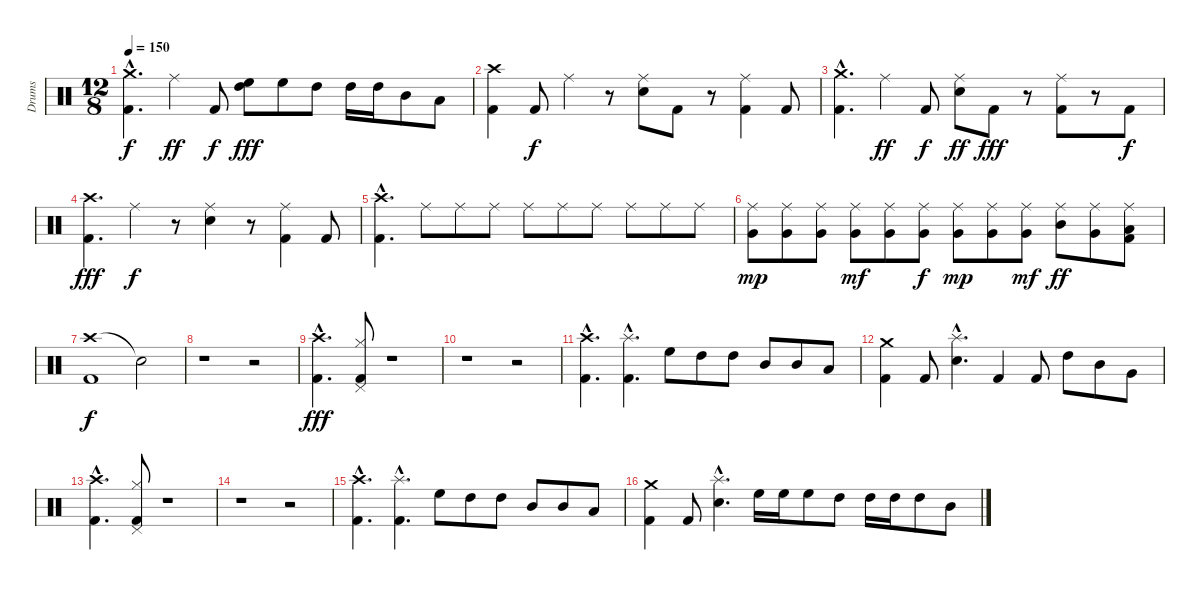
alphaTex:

\track ("Drums" "Drums") {instrument percussion}
\staff {score}
\articulation defaults
\ts (12 8)
\tempo 150
\clef neutral
\ks c
("Crash medium (hit)" "Kick (hit) 2"{hac}).4{d dy f} "Ride (middle)".4{dy ff} "Kick (hit) 2".8{dy f} ("High Tom (hit)" "High Floor Tom (hit)").8{dy fff} "High Floor Tom (hit)".8 "High Tom (hit)".8 "High Tom (hit)".16 "High Tom (hit)".16 "Mid Tom (hit)".8 "Low Floor Tom (hit)".8 |
("Crash high (hit)" "Kick (hit) 2").4 "Kick (hit) 2".8{dy f} "Ride (middle)".4 r.8 ("Ride (middle)" "Snare (hit) 2").8 "Kick (hit) 2".8 r.8 ("Ride (middle)" "Kick (hit) 2").4 "Kick (hit) 2".8 |
("Crash medium (hit)" "Kick (hit) 2"{hac}).4{d} "Ride (middle)".4{dy ff} "Kick (hit) 2".8{dy f} ("Ride (middle)" "Snare (hit) 2").8{dy ff} "Kick (hit) 2".8{dy fff} r.8 ("Ride (middle)" "Kick (hit) 2").8 r.8 "Kick (hit) 2".8{dy f} |
("Crash high (hit)" "Kick (hit) 2").4{d dy fff} "Ride (middle)".4{dy f} r.8 ("Ride (middle)" "Snare (hit) 2").4 r.8 ("Ride (middle)" "Kick (hit) 2").4 "Kick (hit) 2".8 |
("Crash high (hit)"{hac} "Kick (hit) 2"{hac}).4{d} "Ride (middle)".8 "Ride (middle)".8 "Ride (middle)".8 "Ride (middle)".8 "Ride (middle)".8 "Ride (middle)".8 "Ride (middle)".8 "Ride (middle)".8 "Ride (middle)".8 |
("Ride (middle)" "Very Low Tom (hit)").8{dy mp} ("Ride (middle)" "Very Low Tom (hit)").8 ("Ride (middle)" "Very Low Tom (hit)").8 ("Ride (middle)" "Very Low Tom (hit)").8{dy mf} ("Ride (middle)" "Very Low Tom (hit)").8 ("Ride (middle)" "Very Low Tom (hit)").8{dy f} ("Ride (middle)" "Very Low Tom (hit)").8{dy mp} ("Ride (middle)" "Very Low Tom (hit)").8 ("Ride (middle)" "Very Low Tom (hit)").8{dy mf} ("Ride (middle)" "Mid Tom (hit)").8{dy ff} ("Ride (middle)" "Very Low Tom (hit)").8 ("Ride (middle)" "Low Floor Tom (hit)" "Kick (hit) 2").8 |
("Crash high (hit)" "Kick (hit) 2").1{dy f} "Snare (hit)"{t}.2 |
r.1 r.2 |
("Crash high (hit)"{hac} "Kick (hit) 2"{hac}).4{d dy fff} ("Hi-Hat (closed)" "Pedal Hi-Hat (hit)" "Kick (hit) 2").8 r.1 |
r.1 r.2 |
("Crash high (hit)"{hac} "Kick (hit) 2"{hac}).4{d} ("Splash (hit)"{hac} "Kick (hit) 2"{hac}).4{d} "High Floor Tom (hit)".8 "High Tom (hit)".8 "High Tom (hit)".8 "Mid Tom (hit)".8 "Mid Tom (hit)".8 "Low Floor Tom (hit)".8 |
("Crash medium (hit)" "Kick (hit) 2").4 "Kick (hit) 2".8 ("Splash (hit)"{hac} "Snare (hit) 2").4{d} "Kick (hit) 2".4 "Kick (hit) 2".8 "High Tom (hit)".8 "Mid Tom (hit)".8 "Very Low Tom (hit)".8 |
("Crash high (hit)"{hac} "Kick (hit) 2"{hac}).4{d} ("Hi-Hat (closed)" "Pedal Hi-Hat (hit)" "Kick (hit) 2").8 r.1 |
r.1 r.2 |
("Crash high (hit)"{hac} "Kick (hit) 2"{hac}).4{d} ("Splash (hit)"{hac} "Kick (hit) 2"{hac}).4{d} "High Floor Tom (hit)".8 "High Tom (hit)".8 "High Tom (hit)".8 "Mid Tom (hit)".8 "Mid Tom (hit)".8 "Low Floor Tom (hit)".8 |
("Crash medium (hit)" "Kick (hit) 2").4 "Kick (hit) 2".8 ("Splash (hit)"{hac} "Snare (hit) 2").4{d} "High Floor Tom (hit)".16 "High Floor Tom (hit)".16 "High Floor Tom (hit)".8 "High Tom (hit)".8 "High Tom (hit)".16 "High Tom (hit)".16 "High Tom (hit)".8 "Mid Tom (hit)".8
